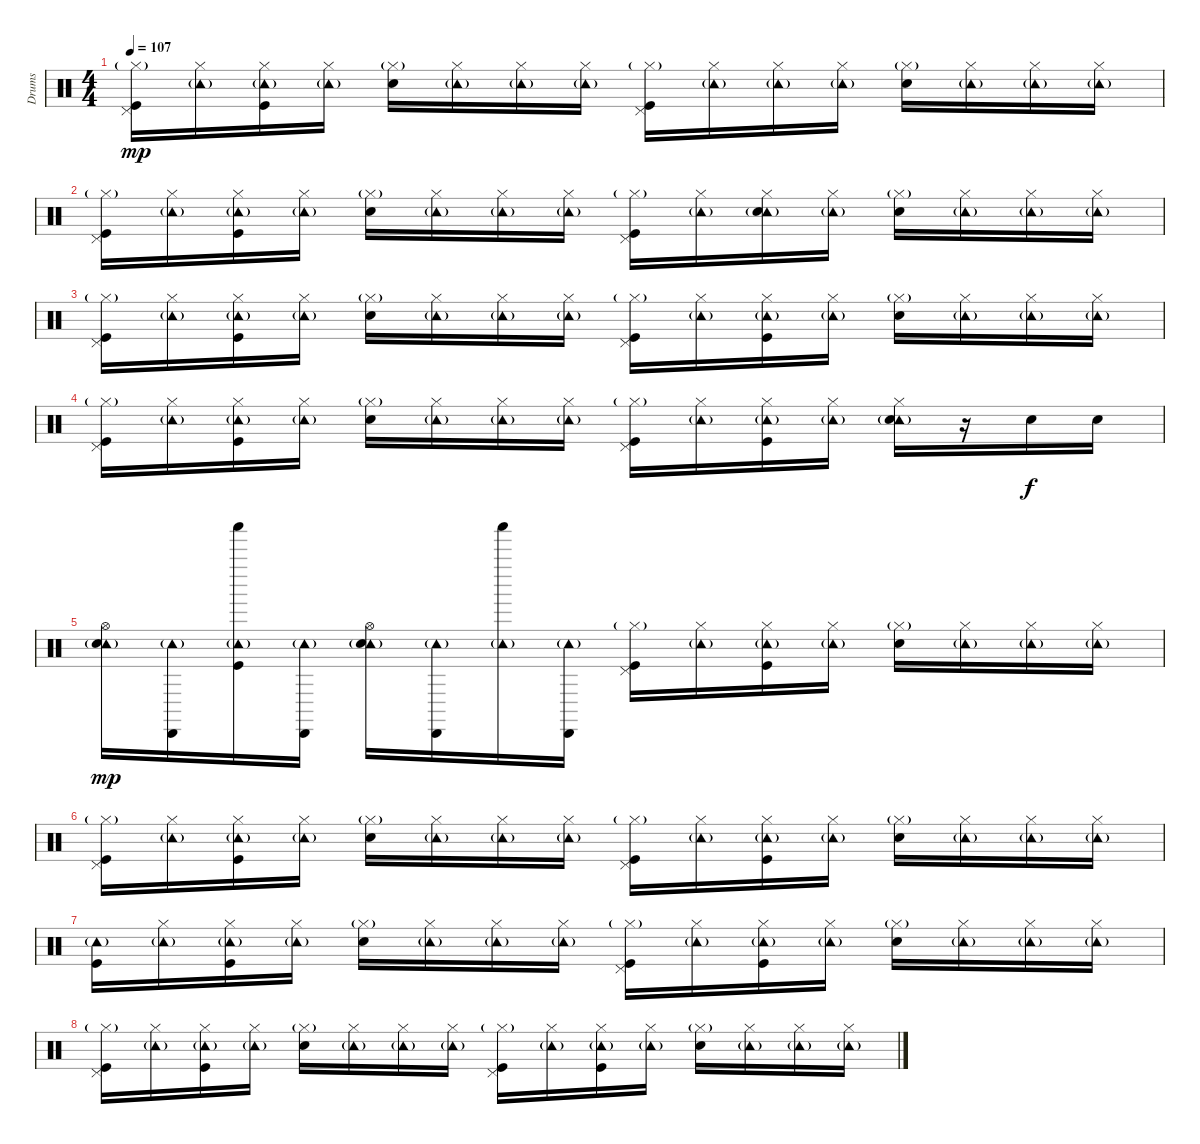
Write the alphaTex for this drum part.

\track ("Drums" "Drums") {instrument percussion}
\staff {score}
\articulation defaults
\ts (4 4)
\tempo 107
\clef neutral
\ks c
("Hi-Hat (closed)"{g} "Pedal Hi-Hat (hit)" "Kick (hit)").16{dy mp} ("Hi-Hat (closed)" "Tambourine (hit)"{g}).16 ("Hi-Hat (closed)" "Tambourine (hit)"{g} "Kick (hit)").16 ("Hi-Hat (closed)" "Tambourine (hit)"{g}).16 ("Hi-Hat (closed)"{g} "Electric Snare (hit)").16 ("Hi-Hat (closed)" "Tambourine (hit)"{g}).16 ("Hi-Hat (closed)" "Tambourine (hit)"{g}).16 ("Hi-Hat (closed)" "Tambourine (hit)"{g}).16 ("Hi-Hat (closed)"{g} "Pedal Hi-Hat (hit)" "Kick (hit)").16 ("Hi-Hat (closed)" "Tambourine (hit)"{g}).16 ("Hi-Hat (closed)" "Tambourine (hit)"{g}).16 ("Hi-Hat (closed)" "Tambourine (hit)"{g}).16 ("Hi-Hat (closed)"{g} "Electric Snare (hit)").16 ("Hi-Hat (closed)" "Tambourine (hit)"{g}).16 ("Hi-Hat (closed)" "Tambourine (hit)"{g}).16 ("Hi-Hat (closed)" "Tambourine (hit)"{g}).16 |
("Hi-Hat (closed)"{g} "Pedal Hi-Hat (hit)" "Kick (hit)").16 ("Hi-Hat (closed)" "Tambourine (hit)"{g}).16 ("Hi-Hat (closed)" "Tambourine (hit)"{g} "Kick (hit)").16 ("Hi-Hat (closed)" "Tambourine (hit)"{g}).16 ("Hi-Hat (closed)"{g} "Electric Snare (hit)").16 ("Hi-Hat (closed)" "Tambourine (hit)"{g}).16 ("Hi-Hat (closed)" "Tambourine (hit)"{g}).16 ("Hi-Hat (closed)" "Tambourine (hit)"{g}).16 ("Hi-Hat (closed)"{g} "Pedal Hi-Hat (hit)" "Kick (hit)").16 ("Hi-Hat (closed)" "Tambourine (hit)"{g}).16 ("Hi-Hat (closed)" "Tambourine (hit)"{g} "Snare (hit) 2").16 ("Hi-Hat (closed)" "Tambourine (hit)"{g}).16 ("Hi-Hat (closed)"{g} "Electric Snare (hit)").16 ("Hi-Hat (closed)" "Tambourine (hit)"{g}).16 ("Hi-Hat (closed)" "Tambourine (hit)"{g}).16 ("Hi-Hat (closed)" "Tambourine (hit)"{g}).16 |
("Hi-Hat (closed)"{g} "Pedal Hi-Hat (hit)" "Kick (hit)").16 ("Hi-Hat (closed)" "Tambourine (hit)"{g}).16 ("Hi-Hat (closed)" "Tambourine (hit)"{g} "Kick (hit)").16 ("Hi-Hat (closed)" "Tambourine (hit)"{g}).16 ("Hi-Hat (closed)"{g} "Electric Snare (hit)").16 ("Hi-Hat (closed)" "Tambourine (hit)"{g}).16 ("Hi-Hat (closed)" "Tambourine (hit)"{g}).16 ("Hi-Hat (closed)" "Tambourine (hit)"{g}).16 ("Hi-Hat (closed)"{g} "Pedal Hi-Hat (hit)" "Kick (hit)").16 ("Hi-Hat (closed)" "Tambourine (hit)"{g}).16 ("Hi-Hat (closed)" "Tambourine (hit)"{g} "Kick (hit)").16 ("Hi-Hat (closed)" "Tambourine (hit)"{g}).16 ("Hi-Hat (closed)"{g} "Electric Snare (hit)").16 ("Hi-Hat (closed)" "Tambourine (hit)"{g}).16 ("Hi-Hat (closed)" "Tambourine (hit)"{g}).16 ("Hi-Hat (closed)" "Tambourine (hit)"{g}).16 |
("Hi-Hat (closed)"{g} "Pedal Hi-Hat (hit)" "Kick (hit)").16 ("Hi-Hat (closed)" "Tambourine (hit)"{g}).16 ("Hi-Hat (closed)" "Tambourine (hit)"{g} "Kick (hit)").16 ("Hi-Hat (closed)" "Tambourine (hit)"{g}).16 ("Hi-Hat (closed)"{g} "Electric Snare (hit)").16 ("Hi-Hat (closed)" "Tambourine (hit)"{g}).16 ("Hi-Hat (closed)" "Tambourine (hit)"{g}).16 ("Hi-Hat (closed)" "Tambourine (hit)"{g}).16 ("Hi-Hat (closed)"{g} "Pedal Hi-Hat (hit)" "Kick (hit)").16 ("Hi-Hat (closed)" "Tambourine (hit)"{g}).16 ("Hi-Hat (closed)" "Tambourine (hit)"{g} "Kick (hit)").16 ("Hi-Hat (closed)" "Tambourine (hit)"{g}).16 ("Hi-Hat (closed)" "Tambourine (hit)"{g} "Electric Snare (hit)").16 r.16 "Electric Snare (hit)".16{dy f} "Electric Snare (hit)".16 |
("Hi-Hat (open)" "Tambourine (hit)"{g} "Electric Snare (hit)").16{dy mp} ("Cabasa (hit)" "Tambourine (hit)"{g}).16 ("Shaker (hit)" "Tambourine (hit)"{g} "Kick (hit)").16 ("Cabasa (hit)" "Tambourine (hit)"{g}).16 ("Hi-Hat (open)" "Tambourine (hit)"{g} "Electric Snare (hit)").16 ("Cabasa (hit)" "Tambourine (hit)"{g}).16 ("Shaker (hit)" "Tambourine (hit)"{g}).16 ("Cabasa (hit)" "Tambourine (hit)"{g}).16 ("Hi-Hat (closed)"{g} "Pedal Hi-Hat (hit)" "Kick (hit)").16 ("Hi-Hat (closed)" "Tambourine (hit)"{g}).16 ("Hi-Hat (closed)" "Tambourine (hit)"{g} "Kick (hit)").16 ("Hi-Hat (closed)" "Tambourine (hit)"{g}).16 ("Hi-Hat (closed)"{g} "Electric Snare (hit)").16 ("Hi-Hat (closed)" "Tambourine (hit)"{g}).16 ("Hi-Hat (closed)" "Tambourine (hit)"{g}).16 ("Hi-Hat (closed)" "Tambourine (hit)"{g}).16 |
("Hi-Hat (closed)"{g} "Pedal Hi-Hat (hit)" "Kick (hit)").16 ("Hi-Hat (closed)" "Tambourine (hit)"{g}).16 ("Hi-Hat (closed)" "Tambourine (hit)"{g} "Kick (hit)").16 ("Hi-Hat (closed)" "Tambourine (hit)"{g}).16 ("Hi-Hat (closed)"{g} "Electric Snare (hit)").16 ("Hi-Hat (closed)" "Tambourine (hit)"{g}).16 ("Hi-Hat (closed)" "Tambourine (hit)"{g}).16 ("Hi-Hat (closed)" "Tambourine (hit)"{g}).16 ("Hi-Hat (closed)"{g} "Pedal Hi-Hat (hit)" "Kick (hit)").16 ("Hi-Hat (closed)" "Tambourine (hit)"{g}).16 ("Hi-Hat (closed)" "Tambourine (hit)"{g} "Kick (hit)").16 ("Hi-Hat (closed)" "Tambourine (hit)"{g}).16 ("Hi-Hat (closed)"{g} "Electric Snare (hit)").16 ("Hi-Hat (closed)" "Tambourine (hit)"{g}).16 ("Hi-Hat (closed)" "Tambourine (hit)"{g}).16 ("Hi-Hat (closed)" "Tambourine (hit)"{g}).16 |
("Tambourine (hit)"{g} "Kick (hit)").16 ("Hi-Hat (closed)" "Tambourine (hit)"{g}).16 ("Hi-Hat (closed)" "Tambourine (hit)"{g} "Kick (hit)").16 ("Hi-Hat (closed)" "Tambourine (hit)"{g}).16 ("Hi-Hat (closed)"{g} "Electric Snare (hit)").16 ("Hi-Hat (closed)" "Tambourine (hit)"{g}).16 ("Hi-Hat (closed)" "Tambourine (hit)"{g}).16 ("Hi-Hat (closed)" "Tambourine (hit)"{g}).16 ("Hi-Hat (closed)"{g} "Pedal Hi-Hat (hit)" "Kick (hit)").16 ("Hi-Hat (closed)" "Tambourine (hit)"{g}).16 ("Hi-Hat (closed)" "Tambourine (hit)"{g} "Kick (hit)").16 ("Hi-Hat (closed)" "Tambourine (hit)"{g}).16 ("Hi-Hat (closed)"{g} "Electric Snare (hit)").16 ("Hi-Hat (closed)" "Tambourine (hit)"{g}).16 ("Hi-Hat (closed)" "Tambourine (hit)"{g}).16 ("Hi-Hat (closed)" "Tambourine (hit)"{g}).16 |
("Hi-Hat (closed)"{g} "Pedal Hi-Hat (hit)" "Kick (hit)").16 ("Hi-Hat (closed)" "Tambourine (hit)"{g}).16 ("Hi-Hat (closed)" "Tambourine (hit)"{g} "Kick (hit)").16 ("Hi-Hat (closed)" "Tambourine (hit)"{g}).16 ("Hi-Hat (closed)"{g} "Electric Snare (hit)").16 ("Hi-Hat (closed)" "Tambourine (hit)"{g}).16 ("Hi-Hat (closed)" "Tambourine (hit)"{g}).16 ("Hi-Hat (closed)" "Tambourine (hit)"{g}).16 ("Hi-Hat (closed)"{g} "Pedal Hi-Hat (hit)" "Kick (hit)").16 ("Hi-Hat (closed)" "Tambourine (hit)"{g}).16 ("Hi-Hat (closed)" "Tambourine (hit)"{g} "Kick (hit)").16 ("Hi-Hat (closed)" "Tambourine (hit)"{g}).16 ("Hi-Hat (closed)"{g} "Electric Snare (hit)").16 ("Hi-Hat (closed)" "Tambourine (hit)"{g}).16 ("Hi-Hat (closed)" "Tambourine (hit)"{g}).16 ("Hi-Hat (closed)" "Tambourine (hit)"{g}).16
